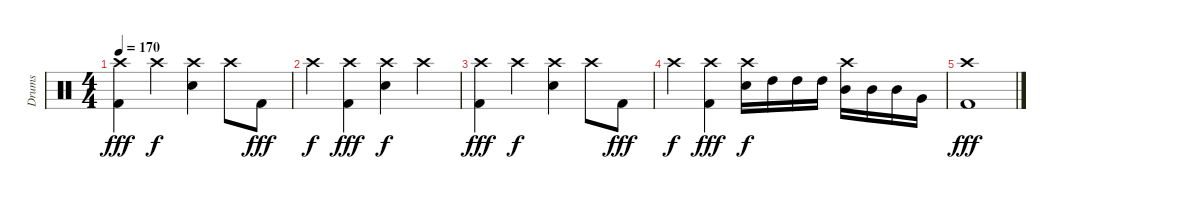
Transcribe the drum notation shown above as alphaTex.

\track ("Drums" "Drums") {instrument percussion}
\staff {score}
\articulation defaults
\ts (4 4)
\tempo 170
\clef neutral
\ks c
("Crash high (hit)" "Kick (hit) 2").4{dy fff} "Crash high (hit)".4{dy f} ("Crash high (hit)" "Electric Snare (hit)").4 "Crash high (hit)".8 "Kick (hit) 2".8{dy fff} |
"Crash high (hit)".4{dy f} ("Crash high (hit)" "Kick (hit) 2").4{dy fff} ("Crash high (hit)" "Electric Snare (hit)").4{dy f} "Crash high (hit)".4 |
("Crash high (hit)" "Kick (hit) 2").4{dy fff} "Crash high (hit)".4{dy f} ("Crash high (hit)" "Electric Snare (hit)").4 "Crash high (hit)".8 "Kick (hit) 2".8{dy fff} |
"Crash high (hit)".4{dy f} ("Crash high (hit)" "Kick (hit) 2").4{dy fff} ("Crash high (hit)" "Electric Snare (hit)").16{dy f} "High Tom (hit)".16 "High Tom (hit)".16 "High Tom (hit)".16 ("Crash high (hit)" "Mid Tom (hit)").16 "Mid Tom (hit)".16 "Mid Tom (hit)".16 "Very Low Tom (hit)".16 |
("Crash high (hit)" "Kick (hit) 2").1{dy fff}
